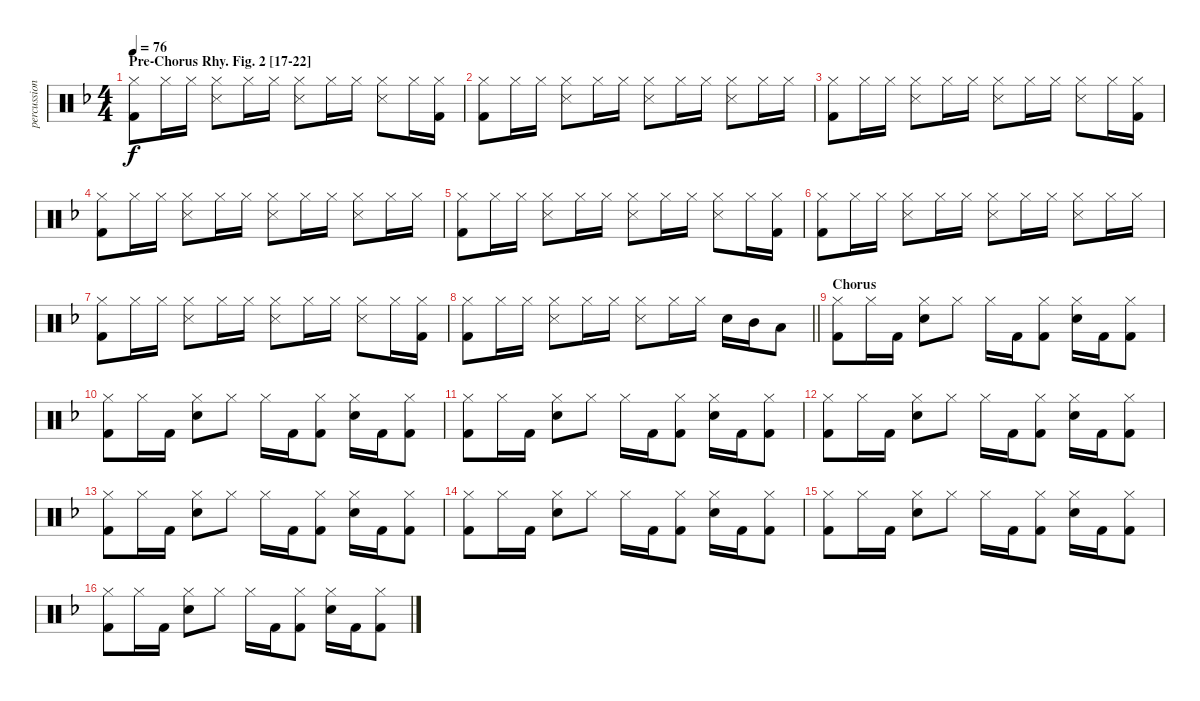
\track ("percussion" "percussion") {instrument percussion}
\staff {score}
\articulation defaults
\ts (4 4)
\section ("" "Pre-Chorus Rhy. Fig. 2 [17-22]")
\tempo 76
\clef neutral
\ks f
("Hi-Hat (closed)" "Kick (hit) 2").8{dy f} "Hi-Hat (closed)".16 "Hi-Hat (closed)".16 ("Snare (side stick) 3" "Hi-Hat (closed)").8 "Hi-Hat (closed)".16 "Hi-Hat (closed)".16 ("Snare (side stick) 3" "Hi-Hat (closed)").8 "Hi-Hat (closed)".16 "Hi-Hat (closed)".16 ("Snare (side stick) 3" "Hi-Hat (closed)").8 "Hi-Hat (closed)".16 ("Hi-Hat (closed)" "Kick (hit) 2").16 |
("Hi-Hat (closed)" "Kick (hit) 2").8 "Hi-Hat (closed)".16 "Hi-Hat (closed)".16 ("Snare (side stick) 3" "Hi-Hat (closed)").8 "Hi-Hat (closed)".16 "Hi-Hat (closed)".16 ("Snare (side stick) 3" "Hi-Hat (closed)").8 "Hi-Hat (closed)".16 "Hi-Hat (closed)".16 ("Snare (side stick) 3" "Hi-Hat (closed)").8 "Hi-Hat (closed)".16 "Hi-Hat (closed)".16 |
("Hi-Hat (closed)" "Kick (hit) 2").8 "Hi-Hat (closed)".16 "Hi-Hat (closed)".16 ("Snare (side stick) 3" "Hi-Hat (closed)").8 "Hi-Hat (closed)".16 "Hi-Hat (closed)".16 ("Snare (side stick) 3" "Hi-Hat (closed)").8 "Hi-Hat (closed)".16 "Hi-Hat (closed)".16 ("Snare (side stick) 3" "Hi-Hat (closed)").8 "Hi-Hat (closed)".16 ("Hi-Hat (closed)" "Kick (hit) 2").16 |
("Hi-Hat (closed)" "Kick (hit) 2").8 "Hi-Hat (closed)".16 "Hi-Hat (closed)".16 ("Snare (side stick) 3" "Hi-Hat (closed)").8 "Hi-Hat (closed)".16 "Hi-Hat (closed)".16 ("Snare (side stick) 3" "Hi-Hat (closed)").8 "Hi-Hat (closed)".16 "Hi-Hat (closed)".16 ("Snare (side stick) 3" "Hi-Hat (closed)").8 "Hi-Hat (closed)".16 "Hi-Hat (closed)".16 |
("Hi-Hat (closed)" "Kick (hit) 2").8 "Hi-Hat (closed)".16 "Hi-Hat (closed)".16 ("Snare (side stick) 3" "Hi-Hat (closed)").8 "Hi-Hat (closed)".16 "Hi-Hat (closed)".16 ("Snare (side stick) 3" "Hi-Hat (closed)").8 "Hi-Hat (closed)".16 "Hi-Hat (closed)".16 ("Snare (side stick) 3" "Hi-Hat (closed)").8 "Hi-Hat (closed)".16 ("Hi-Hat (closed)" "Kick (hit) 2").16 |
("Hi-Hat (closed)" "Kick (hit) 2").8 "Hi-Hat (closed)".16 "Hi-Hat (closed)".16 ("Snare (side stick) 3" "Hi-Hat (closed)").8 "Hi-Hat (closed)".16 "Hi-Hat (closed)".16 ("Snare (side stick) 3" "Hi-Hat (closed)").8 "Hi-Hat (closed)".16 "Hi-Hat (closed)".16 ("Snare (side stick) 3" "Hi-Hat (closed)").8 "Hi-Hat (closed)".16 "Hi-Hat (closed)".16 |
("Hi-Hat (closed)" "Kick (hit) 2").8 "Hi-Hat (closed)".16 "Hi-Hat (closed)".16 ("Snare (side stick) 3" "Hi-Hat (closed)").8 "Hi-Hat (closed)".16 "Hi-Hat (closed)".16 ("Snare (side stick) 3" "Hi-Hat (closed)").8 "Hi-Hat (closed)".16 "Hi-Hat (closed)".16 ("Snare (side stick) 3" "Hi-Hat (closed)").8 "Hi-Hat (closed)".16 ("Hi-Hat (closed)" "Kick (hit) 2").16 |
\barLineRight lightlight
("Hi-Hat (closed)" "Kick (hit) 2").8 "Hi-Hat (closed)".16 "Hi-Hat (closed)".16 ("Snare (side stick) 3" "Hi-Hat (closed)").8 "Hi-Hat (closed)".16 "Hi-Hat (closed)".16 ("Snare (side stick) 3" "Hi-Hat (closed)").8 "Hi-Hat (closed)".16 "Hi-Hat (closed)".16 "Electric Snare (hit)".16 "Mid Tom (hit)".16 "Low Tom (hit)".8 |
\section ("" "Chorus")
("Hi-Hat (closed)" "Kick (hit) 2").8 "Hi-Hat (closed)".16 "Kick (hit) 2".16 ("Electric Snare (hit)" "Hi-Hat (closed)").8 "Hi-Hat (closed)".8 "Hi-Hat (closed)".16 "Kick (hit) 2".16 ("Hi-Hat (closed)" "Kick (hit) 2").8 ("Electric Snare (hit)" "Hi-Hat (closed)").16 "Kick (hit) 2".16 ("Hi-Hat (closed)" "Kick (hit) 2").8 |
("Hi-Hat (closed)" "Kick (hit) 2").8 "Hi-Hat (closed)".16 "Kick (hit) 2".16 ("Electric Snare (hit)" "Hi-Hat (closed)").8 "Hi-Hat (closed)".8 "Hi-Hat (closed)".16 "Kick (hit) 2".16 ("Hi-Hat (closed)" "Kick (hit) 2").8 ("Electric Snare (hit)" "Hi-Hat (closed)").16 "Kick (hit) 2".16 ("Hi-Hat (closed)" "Kick (hit) 2").8 |
("Hi-Hat (closed)" "Kick (hit) 2").8 "Hi-Hat (closed)".16 "Kick (hit) 2".16 ("Electric Snare (hit)" "Hi-Hat (closed)").8 "Hi-Hat (closed)".8 "Hi-Hat (closed)".16 "Kick (hit) 2".16 ("Hi-Hat (closed)" "Kick (hit) 2").8 ("Electric Snare (hit)" "Hi-Hat (closed)").16 "Kick (hit) 2".16 ("Hi-Hat (closed)" "Kick (hit) 2").8 |
("Hi-Hat (closed)" "Kick (hit) 2").8 "Hi-Hat (closed)".16 "Kick (hit) 2".16 ("Electric Snare (hit)" "Hi-Hat (closed)").8 "Hi-Hat (closed)".8 "Hi-Hat (closed)".16 "Kick (hit) 2".16 ("Hi-Hat (closed)" "Kick (hit) 2").8 ("Electric Snare (hit)" "Hi-Hat (closed)").16 "Kick (hit) 2".16 ("Hi-Hat (closed)" "Kick (hit) 2").8 |
("Hi-Hat (closed)" "Kick (hit) 2").8 "Hi-Hat (closed)".16 "Kick (hit) 2".16 ("Electric Snare (hit)" "Hi-Hat (closed)").8 "Hi-Hat (closed)".8 "Hi-Hat (closed)".16 "Kick (hit) 2".16 ("Hi-Hat (closed)" "Kick (hit) 2").8 ("Electric Snare (hit)" "Hi-Hat (closed)").16 "Kick (hit) 2".16 ("Hi-Hat (closed)" "Kick (hit) 2").8 |
("Hi-Hat (closed)" "Kick (hit) 2").8 "Hi-Hat (closed)".16 "Kick (hit) 2".16 ("Electric Snare (hit)" "Hi-Hat (closed)").8 "Hi-Hat (closed)".8 "Hi-Hat (closed)".16 "Kick (hit) 2".16 ("Hi-Hat (closed)" "Kick (hit) 2").8 ("Electric Snare (hit)" "Hi-Hat (closed)").16 "Kick (hit) 2".16 ("Hi-Hat (closed)" "Kick (hit) 2").8 |
("Hi-Hat (closed)" "Kick (hit) 2").8 "Hi-Hat (closed)".16 "Kick (hit) 2".16 ("Electric Snare (hit)" "Hi-Hat (closed)").8 "Hi-Hat (closed)".8 "Hi-Hat (closed)".16 "Kick (hit) 2".16 ("Hi-Hat (closed)" "Kick (hit) 2").8 ("Electric Snare (hit)" "Hi-Hat (closed)").16 "Kick (hit) 2".16 ("Hi-Hat (closed)" "Kick (hit) 2").8 |
("Hi-Hat (closed)" "Kick (hit) 2").8 "Hi-Hat (closed)".16 "Kick (hit) 2".16 ("Electric Snare (hit)" "Hi-Hat (closed)").8 "Hi-Hat (closed)".8 "Hi-Hat (closed)".16 "Kick (hit) 2".16 ("Hi-Hat (closed)" "Kick (hit) 2").8 ("Electric Snare (hit)" "Hi-Hat (closed)").16 "Kick (hit) 2".16 ("Hi-Hat (closed)" "Kick (hit) 2").8
